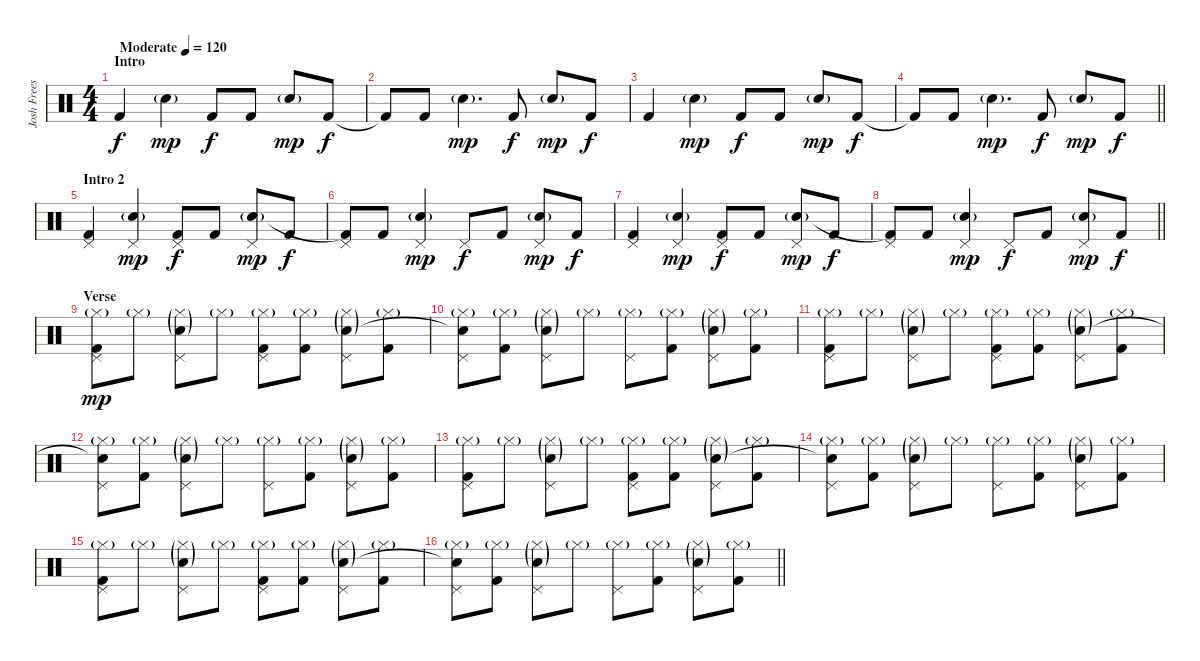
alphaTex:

\track ("Josh Freese (Drums)" "Josh Frees") {instrument percussion}
\staff {score}
\articulation defaults
\ts (4 4)
\section ("" "Intro")
\tempo (120 "Moderate")
\clef neutral
\ks c "Kick (hit) 2".4{dy f} "Snare (hit) 2"{g}.4{dy mp} "Kick (hit) 2".8{dy f} "Kick (hit) 2".8 "Snare (hit) 2"{g}.8{dy mp} "Kick (hit) 2".8{dy f}
|
"Kick (hit) 2"{t}.8 "Kick (hit) 2".8 "Snare (hit) 2"{g}.4{d dy mp} "Kick (hit) 2".8{dy f} "Snare (hit) 2"{g}.8{dy mp} "Kick (hit) 2".8{dy f} |
"Kick (hit) 2".4 "Snare (hit) 2"{g}.4{dy mp} "Kick (hit) 2".8{dy f} "Kick (hit) 2".8 "Snare (hit) 2"{g}.8{dy mp} "Kick (hit) 2".8{dy f} |
\barLineRight lightlight "Kick (hit) 2"{t}.8 "Kick (hit) 2".8 "Snare (hit) 2"{g}.4{d dy mp} "Kick (hit) 2".8{dy f} "Snare (hit) 2"{g}.8{dy mp} "Kick (hit) 2".8{dy f}
|
\section ("" "Intro 2")
("Pedal Hi-Hat (hit)" "Kick (hit) 2").4 ("Pedal Hi-Hat (hit)" "Snare (hit) 2"{g}).4{dy mp} ("Pedal Hi-Hat (hit)" "Kick (hit) 2").8{dy f} "Kick (hit) 2".8 ("Pedal Hi-Hat (hit)" "Snare (hit) 2"{g}).8{dy mp} "Kick (hit) 2".8{dy f} |
("Pedal Hi-Hat (hit)" "Kick (hit) 2"{t}).8 "Kick (hit) 2".8 ("Pedal Hi-Hat (hit)" "Snare (hit) 2"{g}).4{dy mp} "Pedal Hi-Hat (hit)".8{dy f} "Kick (hit) 2".8 ("Pedal Hi-Hat (hit)" "Snare (hit) 2"{g}).8{dy mp} "Kick (hit) 2".8{dy f} |
("Pedal Hi-Hat (hit)" "Kick (hit) 2").4 ("Pedal Hi-Hat (hit)" "Snare (hit) 2"{g}).4{dy mp} ("Pedal Hi-Hat (hit)" "Kick (hit) 2").8{dy f} "Kick (hit) 2".8 ("Pedal Hi-Hat (hit)" "Snare (hit) 2"{g}).8{dy mp} "Kick (hit) 2".8{dy f} |
\barLineRight lightlight
("Pedal Hi-Hat (hit)" "Kick (hit) 2"{t}).8 "Kick (hit) 2".8 ("Pedal Hi-Hat (hit)" "Snare (hit) 2"{g}).4{dy mp} "Pedal Hi-Hat (hit)".8{dy f} "Kick (hit) 2".8 ("Pedal Hi-Hat (hit)" "Snare (hit) 2"{g}).8{dy mp} "Kick (hit) 2".8{dy f} |
\section ("" "Verse")
("Pedal Hi-Hat (hit)" "Hi-Hat (closed)"{g} "Kick (hit) 2").8{dy mp} "Hi-Hat (closed)"{g}.8 ("Pedal Hi-Hat (hit)" "Hi-Hat (closed)"{g} "Snare (hit) 2"{g}).8 "Hi-Hat (closed)"{g}.8 ("Pedal Hi-Hat (hit)" "Hi-Hat (closed)"{g} "Kick (hit) 2").8 ("Hi-Hat (closed)"{g} "Kick (hit) 2").8 ("Pedal Hi-Hat (hit)" "Hi-Hat (closed)"{g} "Snare (hit) 2"{g}).8 ("Hi-Hat (closed)"{g} "Kick (hit) 2").8 |
("Pedal Hi-Hat (hit)" "Hi-Hat (closed)"{g} "Snare (hit)"{t}).8 ("Hi-Hat (closed)"{g} "Kick (hit) 2").8 ("Pedal Hi-Hat (hit)" "Hi-Hat (closed)"{g} "Snare (hit) 2"{g}).8 "Hi-Hat (closed)"{g}.8 ("Pedal Hi-Hat (hit)" "Hi-Hat (closed)"{g}).8 ("Hi-Hat (closed)"{g} "Kick (hit) 2").8 ("Pedal Hi-Hat (hit)" "Hi-Hat (closed)"{g} "Snare (hit) 2"{g}).8 ("Hi-Hat (closed)"{g} "Kick (hit) 2").8 |
("Pedal Hi-Hat (hit)" "Hi-Hat (closed)"{g} "Kick (hit) 2").8 "Hi-Hat (closed)"{g}.8 ("Pedal Hi-Hat (hit)" "Hi-Hat (closed)"{g} "Snare (hit) 2"{g}).8 "Hi-Hat (closed)"{g}.8 ("Pedal Hi-Hat (hit)" "Hi-Hat (closed)"{g} "Kick (hit) 2").8 ("Hi-Hat (closed)"{g} "Kick (hit) 2").8 ("Pedal Hi-Hat (hit)" "Hi-Hat (closed)"{g} "Snare (hit) 2"{g}).8 ("Hi-Hat (closed)"{g} "Kick (hit) 2").8 |
("Pedal Hi-Hat (hit)" "Hi-Hat (closed)"{g} "Snare (hit)"{t}).8 ("Hi-Hat (closed)"{g} "Kick (hit) 2").8 ("Pedal Hi-Hat (hit)" "Hi-Hat (closed)"{g} "Snare (hit) 2"{g}).8 "Hi-Hat (closed)"{g}.8 ("Pedal Hi-Hat (hit)" "Hi-Hat (closed)"{g}).8 ("Hi-Hat (closed)"{g} "Kick (hit) 2").8 ("Pedal Hi-Hat (hit)" "Hi-Hat (closed)"{g} "Snare (hit) 2"{g}).8 ("Hi-Hat (closed)"{g} "Kick (hit) 2").8 |
("Pedal Hi-Hat (hit)" "Hi-Hat (closed)"{g} "Kick (hit) 2").8 "Hi-Hat (closed)"{g}.8 ("Pedal Hi-Hat (hit)" "Hi-Hat (closed)"{g} "Snare (hit) 2"{g}).8 "Hi-Hat (closed)"{g}.8 ("Pedal Hi-Hat (hit)" "Hi-Hat (closed)"{g} "Kick (hit) 2").8 ("Hi-Hat (closed)"{g} "Kick (hit) 2").8 ("Pedal Hi-Hat (hit)" "Hi-Hat (closed)"{g} "Snare (hit) 2"{g}).8 ("Hi-Hat (closed)"{g} "Kick (hit) 2").8 |
("Pedal Hi-Hat (hit)" "Hi-Hat (closed)"{g} "Snare (hit)"{t}).8 ("Hi-Hat (closed)"{g} "Kick (hit) 2").8 ("Pedal Hi-Hat (hit)" "Hi-Hat (closed)"{g} "Snare (hit) 2"{g}).8 "Hi-Hat (closed)"{g}.8 ("Pedal Hi-Hat (hit)" "Hi-Hat (closed)"{g}).8 ("Hi-Hat (closed)"{g} "Kick (hit) 2").8 ("Pedal Hi-Hat (hit)" "Hi-Hat (closed)"{g} "Snare (hit) 2"{g}).8 ("Hi-Hat (closed)"{g} "Kick (hit) 2").8 |
("Pedal Hi-Hat (hit)" "Hi-Hat (closed)"{g} "Kick (hit) 2").8 "Hi-Hat (closed)"{g}.8 ("Pedal Hi-Hat (hit)" "Hi-Hat (closed)"{g} "Snare (hit) 2"{g}).8 "Hi-Hat (closed)"{g}.8 ("Pedal Hi-Hat (hit)" "Hi-Hat (closed)"{g} "Kick (hit) 2").8 ("Hi-Hat (closed)"{g} "Kick (hit) 2").8 ("Pedal Hi-Hat (hit)" "Hi-Hat (closed)"{g} "Snare (hit) 2"{g}).8 ("Hi-Hat (closed)"{g} "Kick (hit) 2").8 |
\barLineRight lightlight
("Pedal Hi-Hat (hit)" "Hi-Hat (closed)"{g} "Snare (hit)"{t}).8 ("Hi-Hat (closed)"{g} "Kick (hit) 2").8 ("Pedal Hi-Hat (hit)" "Hi-Hat (closed)"{g} "Snare (hit) 2"{g}).8 "Hi-Hat (closed)"{g}.8 ("Pedal Hi-Hat (hit)" "Hi-Hat (closed)"{g}).8 ("Hi-Hat (closed)"{g} "Kick (hit) 2").8 ("Pedal Hi-Hat (hit)" "Hi-Hat (closed)"{g} "Snare (hit) 2"{g}).8 ("Hi-Hat (closed)"{g} "Kick (hit) 2").8
